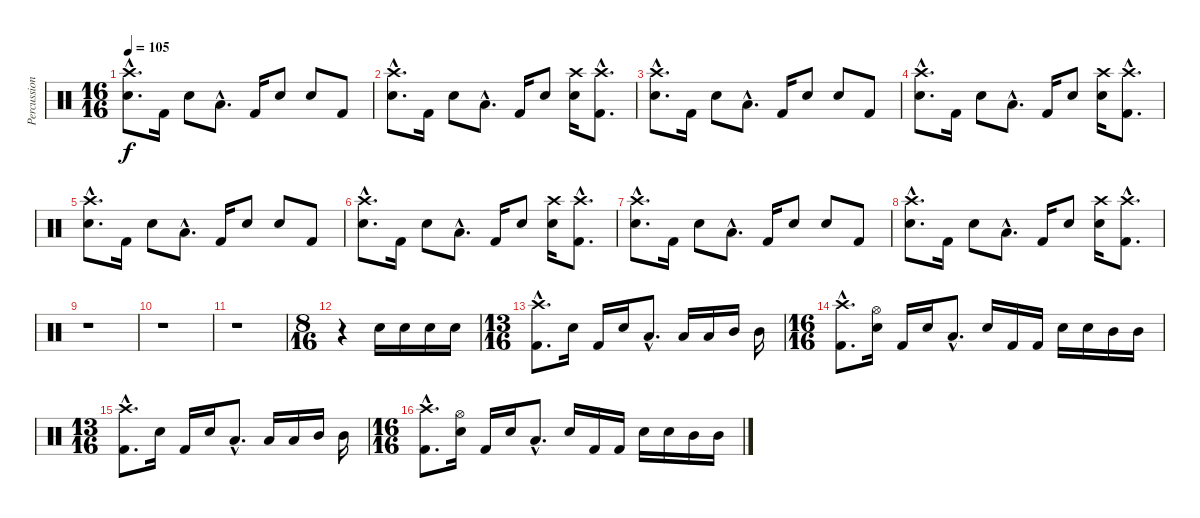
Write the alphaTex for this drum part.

\track ("Percussion" "Percussion") {instrument percussion}
\staff {score}
\articulation defaults
\ts (16 16)
\tempo 105
\clef neutral
\ks c
("Snare (hit) 2"{hac} "Crash high (hit)"{hac}).8{d dy f} "Kick (hit) 2".16 "Snare (hit) 2".8 "Low Floor Tom (hit)"{hac}.8{d} "Kick (hit) 2".16 "Snare (hit) 2".8 "Snare (hit) 2".8 "Kick (hit) 2".8 |
("Snare (hit) 2"{hac} "Crash high (hit)"{hac}).8{d} "Kick (hit) 2".16 "Snare (hit) 2".8 "Low Floor Tom (hit)"{hac}.8{d} "Kick (hit) 2".16 "Snare (hit) 2".8 ("Snare (hit) 2" "Crash high (hit)").16 ("Kick (hit) 2"{hac} "Crash high (hit)"{hac}).8{d} |
("Snare (hit) 2"{hac} "Crash high (hit)"{hac}).8{d} "Kick (hit) 2".16 "Snare (hit) 2".8 "Low Floor Tom (hit)"{hac}.8{d} "Kick (hit) 2".16 "Snare (hit) 2".8 "Snare (hit) 2".8 "Kick (hit) 2".8 |
("Snare (hit) 2"{hac} "Crash high (hit)"{hac}).8{d} "Kick (hit) 2".16 "Snare (hit) 2".8 "Low Floor Tom (hit)"{hac}.8{d} "Kick (hit) 2".16 "Snare (hit) 2".8 ("Snare (hit) 2" "Crash high (hit)").16 ("Kick (hit) 2"{hac} "Crash high (hit)"{hac}).8{d} |
("Snare (hit) 2"{hac} "Crash high (hit)"{hac}).8{d} "Kick (hit) 2".16 "Snare (hit) 2".8 "Low Floor Tom (hit)"{hac}.8{d} "Kick (hit) 2".16 "Snare (hit) 2".8 "Snare (hit) 2".8 "Kick (hit) 2".8 |
("Snare (hit) 2"{hac} "Crash high (hit)"{hac}).8{d} "Kick (hit) 2".16 "Snare (hit) 2".8 "Low Floor Tom (hit)"{hac}.8{d} "Kick (hit) 2".16 "Snare (hit) 2".8 ("Snare (hit) 2" "Crash high (hit)").16 ("Kick (hit) 2"{hac} "Crash high (hit)"{hac}).8{d} |
("Snare (hit) 2"{hac} "Crash high (hit)"{hac}).8{d} "Kick (hit) 2".16 "Snare (hit) 2".8 "Low Floor Tom (hit)"{hac}.8{d} "Kick (hit) 2".16 "Snare (hit) 2".8 "Snare (hit) 2".8 "Kick (hit) 2".8 |
("Snare (hit) 2"{hac} "Crash high (hit)"{hac}).8{d} "Kick (hit) 2".16 "Snare (hit) 2".8 "Low Floor Tom (hit)"{hac}.8{d} "Kick (hit) 2".16 "Snare (hit) 2".8 ("Snare (hit) 2" "Crash high (hit)").16 ("Kick (hit) 2"{hac} "Crash high (hit)"{hac}).8{d} |
r.1 |
r.1 |
r.1 |
\ts (8 16)
r.4 "Electric Snare (hit)".16 "Electric Snare (hit)".16 "Snare (hit) 2".16 "Snare (hit) 2".16 |
\ts (13 16)
("Kick (hit) 2"{hac} "Crash high (hit)"{hac}).8{d} "Snare (hit) 2".16 "Kick (hit) 2".16 "Snare (hit) 2".16 "Low Floor Tom (hit)"{hac}.8{d} "Low Tom (hit)".16 "Low Tom (hit)".16 "Mid Tom (hit)".16 "Mid Tom (hit)".16 |
\ts (16 16)
("Kick (hit) 2"{hac} "Crash high (hit)"{hac}).8{d} ("Snare (hit) 2" "Hi-Hat (open)").16 "Kick (hit) 2".16 "Snare (hit) 2".16 "Low Floor Tom (hit)"{hac}.8{d} "Snare (hit) 2".16 "Kick (hit) 2".16 "Kick (hit) 2".16 "Snare (hit) 2".16 "Snare (hit) 2".16 "Mid Tom (hit)".16 "Mid Tom (hit)".16 |
\ts (13 16)
("Kick (hit) 2"{hac} "Crash high (hit)"{hac}).8{d} "Snare (hit) 2".16 "Kick (hit) 2".16 "Snare (hit) 2".16 "Low Floor Tom (hit)"{hac}.8{d} "Low Tom (hit)".16 "Low Tom (hit)".16 "Mid Tom (hit)".16 "Mid Tom (hit)".16 |
\ts (16 16)
("Kick (hit) 2"{hac} "Crash high (hit)"{hac}).8{d} ("Snare (hit) 2" "Hi-Hat (open)").16 "Kick (hit) 2".16 "Snare (hit) 2".16 "Low Floor Tom (hit)"{hac}.8{d} "Snare (hit) 2".16 "Kick (hit) 2".16 "Kick (hit) 2".16 "Snare (hit) 2".16 "Snare (hit) 2".16 "Mid Tom (hit)".16 "Mid Tom (hit)".16
